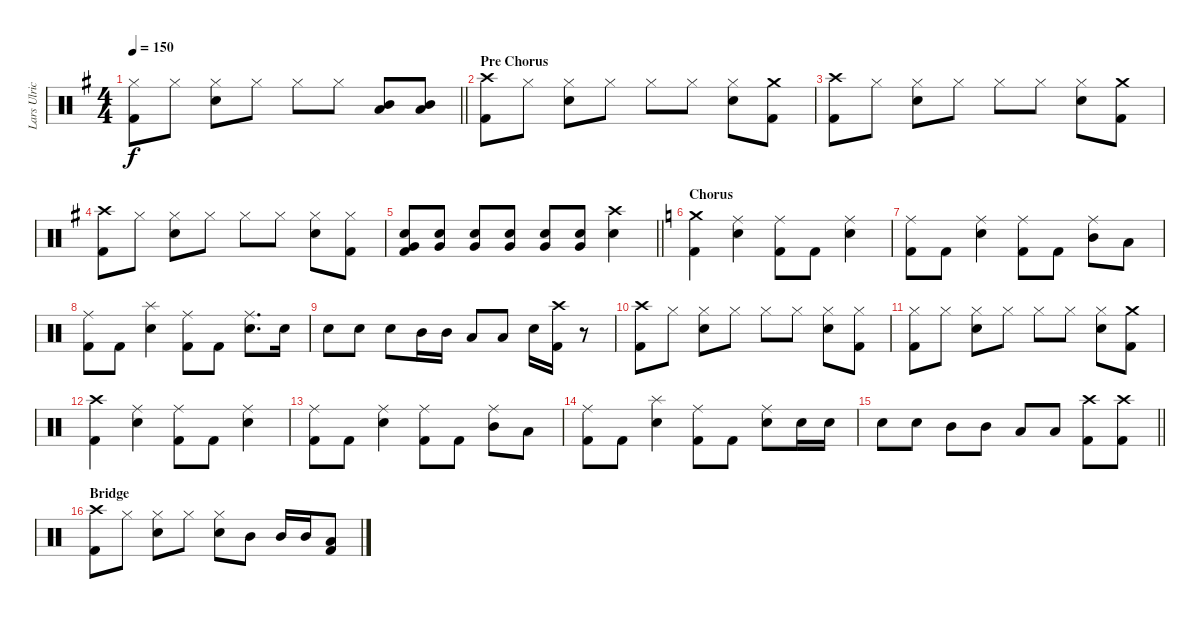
\track ("Lars Ulrich" "Lars Ulric") {instrument percussion}
\staff {score}
\articulation defaults
\ts (4 4)
\tempo 150
\clef neutral
\barLineRight lightlight
\ks g
("Hi-Hat (closed)" "Kick (hit) 2").8{dy f} "Hi-Hat (closed)".8 ("Hi-Hat (closed)" "Snare (hit) 2").8 "Hi-Hat (closed)".8 "Hi-Hat (closed)".8 "Hi-Hat (closed)".8 ("Low Tom (hit)" "Mid Tom (hit)").8 ("Low Tom (hit)" "Mid Tom (hit)").8 |
\section ("" "Pre Chorus")
("Crash high (hit)" "Kick (hit) 2").8 "Hi-Hat (closed)".8 ("Hi-Hat (closed)" "Snare (hit) 2").8 "Hi-Hat (closed)".8 "Hi-Hat (closed)".8 "Hi-Hat (closed)".8 ("Hi-Hat (closed)" "Snare (hit) 2").8 ("Crash medium (hit)" "Kick (hit) 2").8 |
("Crash high (hit)" "Kick (hit) 2").8 "Hi-Hat (closed)".8 ("Hi-Hat (closed)" "Snare (hit) 2").8 "Hi-Hat (closed)".8 "Hi-Hat (closed)".8 "Hi-Hat (closed)".8 ("Hi-Hat (closed)" "Snare (hit) 2").8 ("Crash medium (hit)" "Kick (hit) 2").8 |
("Crash high (hit)" "Kick (hit) 2").8 "Hi-Hat (closed)".8 ("Hi-Hat (closed)" "Snare (hit) 2").8 "Hi-Hat (closed)".8 "Hi-Hat (closed)".8 "Hi-Hat (closed)".8 ("Hi-Hat (closed)" "Snare (hit) 2").8 ("Hi-Hat (closed)" "Kick (hit) 2").8 |
\barLineRight lightlight
("Very Low Tom (hit)" "Snare (hit) 2" "Kick (hit) 2").8 ("Very Low Tom (hit)" "Snare (hit) 2").8 ("Very Low Tom (hit)" "Snare (hit) 2").8 ("Very Low Tom (hit)" "Snare (hit) 2").8 ("Very Low Tom (hit)" "Snare (hit) 2").8 ("Very Low Tom (hit)" "Snare (hit) 2").8 ("Crash high (hit)" "Snare (hit) 2").4 |
\section ("" "Chorus")
\ks c
("Crash medium (hit)" "Kick (hit) 2").4 ("Ride (middle)" "Snare (hit) 2").4 ("Ride (middle)" "Kick (hit) 2").8 "Kick (hit) 2".8 ("Ride (middle)" "Snare (hit) 2").4 |
("Ride (middle)" "Kick (hit) 2").8 "Kick (hit) 2".8 ("Ride (middle)" "Snare (hit) 2").4 ("Ride (middle)" "Kick (hit) 2").8 "Kick (hit) 2".8 ("Ride (middle)" "Mid Tom (hit)").8 "Low Tom (hit)".8 |
("Ride (middle)" "Kick (hit) 2").8 "Kick (hit) 2".8 ("Splash (hit)" "Snare (hit) 2").4 ("Ride (middle)" "Kick (hit) 2").8 "Kick (hit) 2".8 ("Ride (middle)" "Snare (hit) 2").8{d} "Snare (hit) 2".16 |
"Snare (hit) 2".8 "Snare (hit) 2".8 "Snare (hit) 2".8 "Mid Tom (hit)".16 "Mid Tom (hit)".16 "Low Tom (hit)".8 "Low Tom (hit)".8 "Snare (hit) 2".16 ("Crash high (hit)" "Kick (hit) 2").16 r.8 |
("Crash high (hit)" "Kick (hit) 2").8 "Hi-Hat (closed)".8 ("Hi-Hat (closed)" "Snare (hit) 2").8 "Hi-Hat (closed)".8 "Hi-Hat (closed)".8 "Hi-Hat (closed)".8 ("Hi-Hat (closed)" "Snare (hit) 2").8 ("Hi-Hat (closed)" "Kick (hit) 2").8 |
("Hi-Hat (closed)" "Kick (hit) 2").8 "Hi-Hat (closed)".8 ("Hi-Hat (closed)" "Snare (hit) 2").8 "Hi-Hat (closed)".8 "Hi-Hat (closed)".8 "Hi-Hat (closed)".8 ("Hi-Hat (closed)" "Snare (hit) 2").8 ("Crash medium (hit)" "Kick (hit) 2").8 |
("Crash high (hit)" "Kick (hit) 2").4 ("Ride (middle)" "Snare (hit) 2").4 ("Ride (middle)" "Kick (hit) 2").8 "Kick (hit) 2".8 ("Ride (middle)" "Snare (hit) 2").4 |
("Ride (middle)" "Kick (hit) 2").8 "Kick (hit) 2".8 ("Ride (middle)" "Snare (hit) 2").4 ("Ride (middle)" "Kick (hit) 2").8 "Kick (hit) 2".8 ("Ride (middle)" "Mid Tom (hit)").8 "Low Tom (hit)".8 |
("Ride (middle)" "Kick (hit) 2").8 "Kick (hit) 2".8 ("Splash (hit)" "Snare (hit) 2").4 ("Ride (middle)" "Kick (hit) 2").8 "Kick (hit) 2".8 ("Ride (middle)" "Snare (hit) 2").8 "Snare (hit) 2".16 "Snare (hit) 2".16 |
\barLineRight lightlight "Snare (hit) 2".8 "Snare (hit) 2".8 "Mid Tom (hit)".8 "Mid Tom (hit)".8 "Low Tom (hit)".8 "Low Tom (hit)".8
("Crash high (hit)" "Kick (hit) 2").8 ("Crash high (hit)" "Kick (hit) 2").8 |
\section ("" "Bridge")
("Crash high (hit)" "Kick (hit) 2").8 "Hi-Hat (closed)".8 ("Hi-Hat (closed)" "Snare (hit) 2").8 "Hi-Hat (closed)".8 ("Hi-Hat (closed)" "Snare (hit) 2").8 "Mid Tom (hit)".8 "Mid Tom (hit)".16 "Mid Tom (hit)".16 ("Low Tom (hit)" "Kick (hit) 2").8
